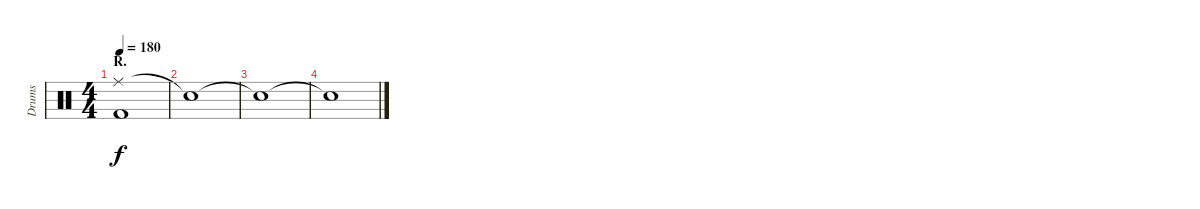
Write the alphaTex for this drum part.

\track ("Drums" "Drums") {instrument percussion}
\staff {score}
\articulation defaults
\ts (4 4)
\section ("" "R.")
\tempo 180
\clef neutral
\ks c
("Ride (middle)" "Kick (hit) 2").1{dy f} |
"Snare (hit)"{t}.1 |
"Snare (hit)"{t}.1 |
"Snare (hit)"{t}.1
